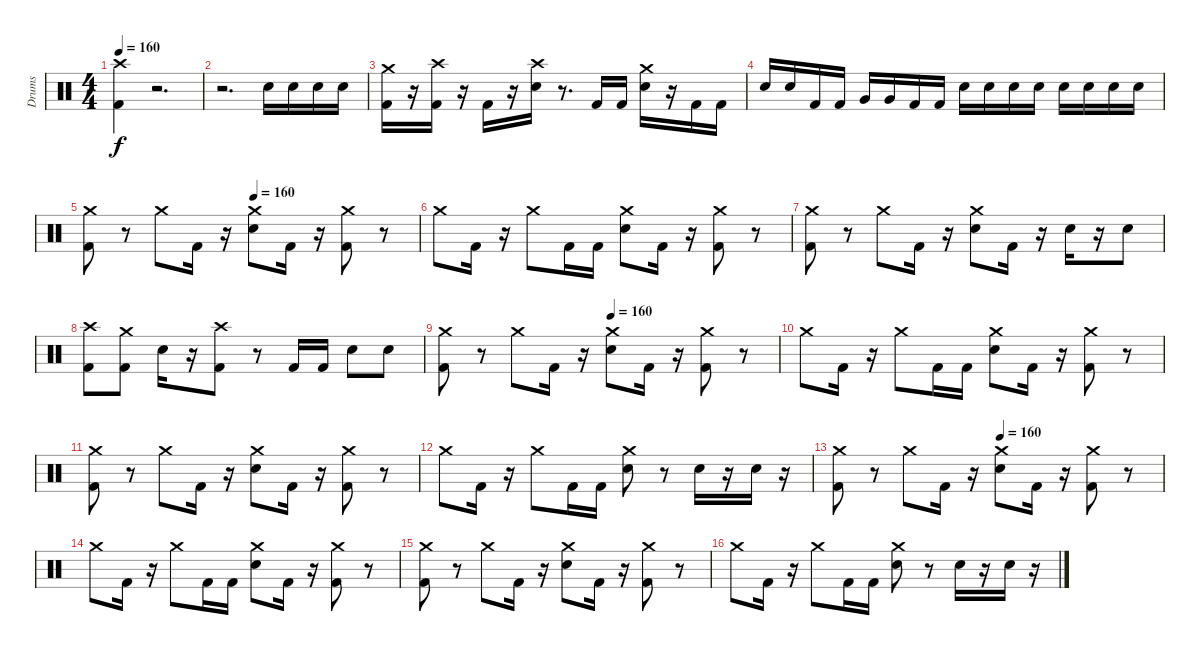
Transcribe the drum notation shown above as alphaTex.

\track ("Drums" "Drums") {instrument percussion}
\staff {score}
\articulation defaults
\ts (4 4)
\tempo 160
\clef neutral
\ks c
("Crash high (hit)" "Kick (hit) 2").4{dy f} r.2{d} |
r.2{d} "Electric Snare (hit)".16 "Electric Snare (hit)".16 "Electric Snare (hit)".16 "Electric Snare (hit)".16 |
("Crash medium (hit)" "Kick (hit) 2").16 r.16 ("Crash high (hit)" "Kick (hit) 2").16 r.16 "Kick (hit) 2".16 r.16 ("Crash high (hit)" "Electric Snare (hit)").16 r.8{d} "Kick (hit) 2".16 "Kick (hit) 2".16 ("Crash medium (hit)" "Electric Snare (hit)").16 r.16 "Kick (hit) 2".16 "Kick (hit) 2".16 |
"Electric Snare (hit)".16 "Electric Snare (hit)".16 "Kick (hit) 2".16 "Kick (hit) 2".16 "Very Low Tom (hit)".16 "Very Low Tom (hit)".16 "Kick (hit) 2".16 "Kick (hit) 2".16 "Electric Snare (hit)".16 "Electric Snare (hit)".16 "Electric Snare (hit)".16 "Electric Snare (hit)".16 "Electric Snare (hit)".16 "Electric Snare (hit)".16 "Electric Snare (hit)".16 "Electric Snare (hit)".16 |
\tempo (160 0.5)
("Kick (hit) 2" "Crash medium (hit)").8 r.8 "Crash medium (hit)".8 "Kick (hit) 2".16 r.16 ("Electric Snare (hit)" "Crash medium (hit)").8 "Kick (hit) 2".16 r.16 ("Kick (hit) 2" "Crash medium (hit)").8 r.8 |
"Crash medium (hit)".8 "Kick (hit) 2".16 r.16 "Crash medium (hit)".8 "Kick (hit) 2".16 "Kick (hit) 2".16 ("Electric Snare (hit)" "Crash medium (hit)").8 "Kick (hit) 2".16 r.16 ("Kick (hit) 2" "Crash medium (hit)").8 r.8 |
("Kick (hit) 2" "Crash medium (hit)").8 r.8 "Crash medium (hit)".8 "Kick (hit) 2".16 r.16 ("Electric Snare (hit)" "Crash medium (hit)").8 "Kick (hit) 2".16 r.16 "Electric Snare (hit)".16 r.16 "Electric Snare (hit)".8 |
("Crash high (hit)" "Kick (hit) 2").8 ("Crash medium (hit)" "Kick (hit) 2").8 "Electric Snare (hit)".16 r.16 ("Crash high (hit)" "Kick (hit) 2").8 r.8 "Kick (hit) 2".16 "Kick (hit) 2".16 "Electric Snare (hit)".8 "Electric Snare (hit)".8 |
\tempo (160 0.5)
("Kick (hit) 2" "Crash medium (hit)").8 r.8 "Crash medium (hit)".8 "Kick (hit) 2".16 r.16 ("Electric Snare (hit)" "Crash medium (hit)").8 "Kick (hit) 2".16 r.16 ("Kick (hit) 2" "Crash medium (hit)").8 r.8 |
"Crash medium (hit)".8 "Kick (hit) 2".16 r.16 "Crash medium (hit)".8 "Kick (hit) 2".16 "Kick (hit) 2".16 ("Electric Snare (hit)" "Crash medium (hit)").8 "Kick (hit) 2".16 r.16 ("Kick (hit) 2" "Crash medium (hit)").8 r.8 |
("Kick (hit) 2" "Crash medium (hit)").8 r.8 "Crash medium (hit)".8 "Kick (hit) 2".16 r.16 ("Electric Snare (hit)" "Crash medium (hit)").8 "Kick (hit) 2".16 r.16 ("Kick (hit) 2" "Crash medium (hit)").8 r.8 |
"Crash medium (hit)".8 "Kick (hit) 2".16 r.16 "Crash medium (hit)".8 "Kick (hit) 2".16 "Kick (hit) 2".16 ("Electric Snare (hit)" "Crash medium (hit)").8 r.8 "Electric Snare (hit)".16 r.16 "Electric Snare (hit)".16 r.16 |
\tempo (160 0.5)
("Kick (hit) 2" "Crash medium (hit)").8 r.8 "Crash medium (hit)".8 "Kick (hit) 2".16 r.16 ("Electric Snare (hit)" "Crash medium (hit)").8 "Kick (hit) 2".16 r.16 ("Kick (hit) 2" "Crash medium (hit)").8 r.8 |
"Crash medium (hit)".8 "Kick (hit) 2".16 r.16 "Crash medium (hit)".8 "Kick (hit) 2".16 "Kick (hit) 2".16 ("Electric Snare (hit)" "Crash medium (hit)").8 "Kick (hit) 2".16 r.16 ("Kick (hit) 2" "Crash medium (hit)").8 r.8 |
("Kick (hit) 2" "Crash medium (hit)").8 r.8 "Crash medium (hit)".8 "Kick (hit) 2".16 r.16 ("Electric Snare (hit)" "Crash medium (hit)").8 "Kick (hit) 2".16 r.16 ("Kick (hit) 2" "Crash medium (hit)").8 r.8 |
"Crash medium (hit)".8 "Kick (hit) 2".16 r.16 "Crash medium (hit)".8 "Kick (hit) 2".16 "Kick (hit) 2".16 ("Electric Snare (hit)" "Crash medium (hit)").8 r.8 "Electric Snare (hit)".16 r.16 "Electric Snare (hit)".16 r.16
